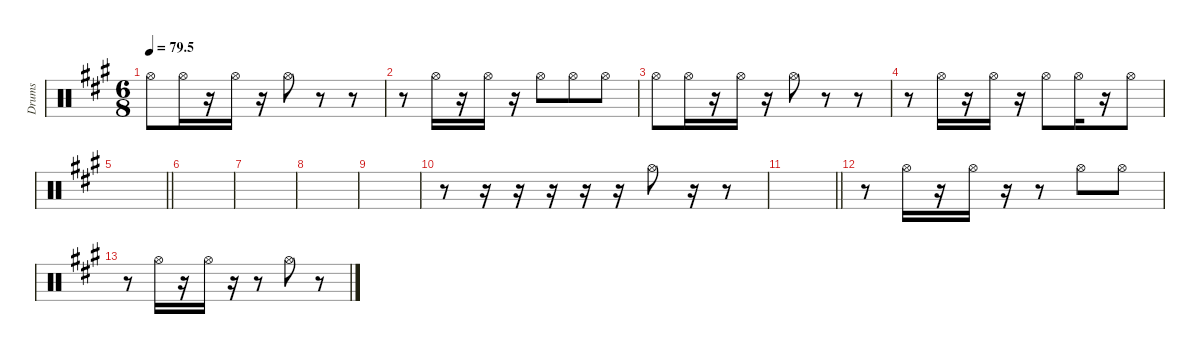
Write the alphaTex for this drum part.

\defaultSystemsLayout 4
\hideDynamics
\bracketExtendMode nobrackets
\otherSystemsTrackNameOrientation horizontal
\track ("Hihat" "Drums") {instrument percussion}
\staff {score}
\articulation defaults
\ts (6 8)
\tempo
79.5
\accidentals auto
\clef neutral
\ottava regular
\simile none
\scale
0.333333
\ks a "Hi-Hat (open)"{acc forcenatural}.8{dy f} "Hi-Hat (open)"{acc forcenatural}.16
r.16 "Hi-Hat (open)"{acc forcenatural}.16 r.16 "Hi-Hat (open)"{acc forcenatural}.8 r.8 r.8 |
\scale
0.333333 r.8 "Hi-Hat (open)"{acc forcenatural}.16 r.16 "Hi-Hat (open)"{acc forcenatural}.16 r.16 "Hi-Hat (open)"{acc forcenatural}.8 "Hi-Hat (open)"{acc forcenatural}.8 "Hi-Hat (open)"{acc forcenatural}.8 |
\scale
0.333333 "Hi-Hat (open)"{acc forcenatural}.8 "Hi-Hat (open)"{acc forcenatural}.16 r.16 "Hi-Hat (open)"{acc forcenatural}.16 r.16 "Hi-Hat (open)"{acc forcenatural}.8 r.8 r.8 |
\scale
0.333333 r.8 "Hi-Hat (open)"{acc forcenatural}.16 r.16 "Hi-Hat (open)"{acc forcenatural}.16 r.16 "Hi-Hat (open)"{acc forcenatural}.8 "Hi-Hat (open)"{acc forcenatural}.16 r.16 "Hi-Hat (open)"{acc forcenatural}.8 |
\scale
0.333333
\barLineRight lightlight
|
\scale
0.333333 |
\scale
0.333333 |
\scale
0.333333 |
\scale
0.333333 |
\scale
0.333333 r.8 r.16 r.16 r.16 r.16 r.16 "Hi-Hat (open)"{acc forcenatural}.8 r.16 r.8 |
\scale
0.333333
\barLineRight lightlight
|
\scale
0.333333 r.8 "Hi-Hat (open)"{acc forcenatural}.16 r.16 "Hi-Hat (open)"{acc forcenatural}.16 r.16 r.8 "Hi-Hat (open)"{acc forcenatural}.8 "Hi-Hat (open)"{acc forcenatural}.8 |
\scale
0.333333 r.8 "Hi-Hat (open)"{acc forcenatural}.16 r.16 "Hi-Hat (open)"{acc forcenatural}.16 r.16 r.8 "Hi-Hat (open)"{acc forcenatural}.8 r.8 |
\scale
0.333333 |
\scale
0.333333 |
\scale
0.333333
